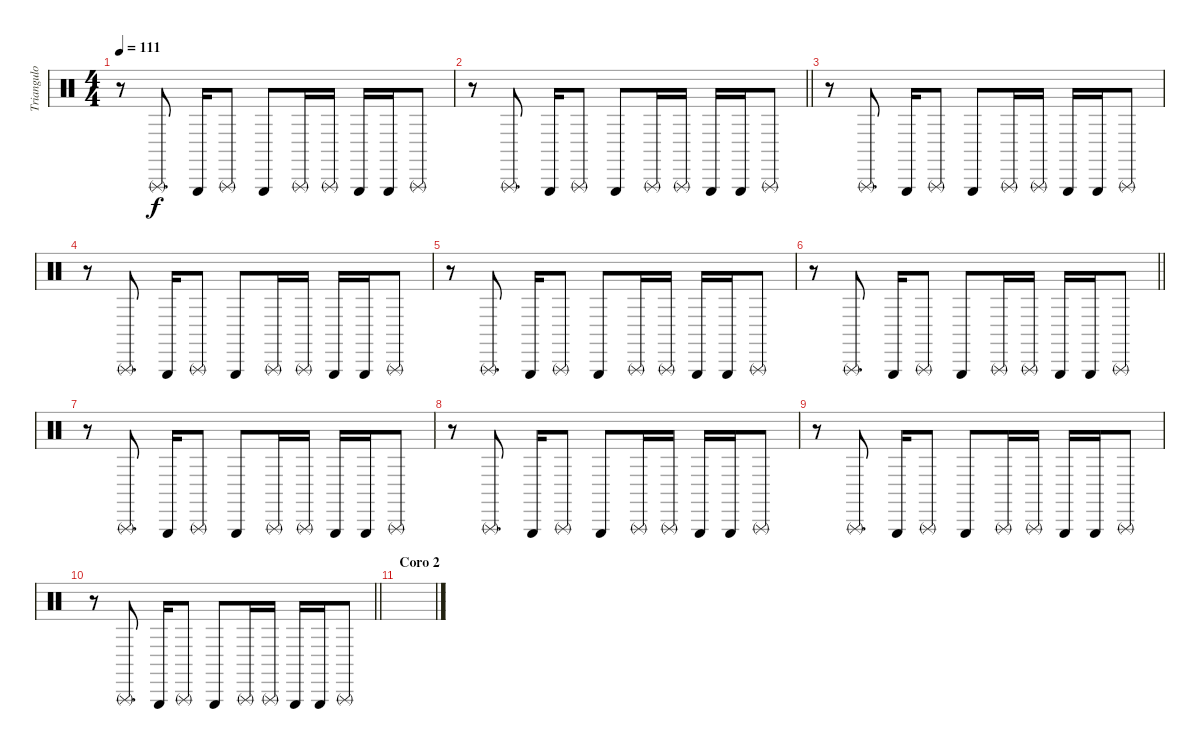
\track ("Triangulo" "Triangulo") {instrument percussion}
\staff {score}
\articulation defaults
\ts (4 4)
\tempo 111
\clef neutral
\ks c
r.8{dy f} "Triangle (rnute)".8{d} "Triangle (hit)".16 "Triangle (rnute)".8 "Triangle (hit)".8 "Triangle (rnute)".16 "Triangle (rnute)".16 "Triangle (hit)".16 "Triangle (hit)".16 "Triangle (rnute)".8 |
\barLineRight lightlight
r.8 "Triangle (rnute)".8{d} "Triangle (hit)".16 "Triangle (rnute)".8 "Triangle (hit)".8 "Triangle (rnute)".16 "Triangle (rnute)".16 "Triangle (hit)".16 "Triangle (hit)".16 "Triangle (rnute)".8 |
r.8 "Triangle (rnute)".8{d} "Triangle (hit)".16 "Triangle (rnute)".8 "Triangle (hit)".8 "Triangle (rnute)".16 "Triangle (rnute)".16 "Triangle (hit)".16 "Triangle (hit)".16 "Triangle (rnute)".8 |
r.8 "Triangle (rnute)".8{d} "Triangle (hit)".16 "Triangle (rnute)".8 "Triangle (hit)".8 "Triangle (rnute)".16 "Triangle (rnute)".16 "Triangle (hit)".16 "Triangle (hit)".16 "Triangle (rnute)".8 |
r.8 "Triangle (rnute)".8{d} "Triangle (hit)".16 "Triangle (rnute)".8 "Triangle (hit)".8 "Triangle (rnute)".16 "Triangle (rnute)".16 "Triangle (hit)".16 "Triangle (hit)".16 "Triangle (rnute)".8 |
\barLineRight lightlight
r.8 "Triangle (rnute)".8{d} "Triangle (hit)".16 "Triangle (rnute)".8 "Triangle (hit)".8 "Triangle (rnute)".16 "Triangle (rnute)".16 "Triangle (hit)".16 "Triangle (hit)".16 "Triangle (rnute)".8 |
r.8 "Triangle (rnute)".8{d} "Triangle (hit)".16 "Triangle (rnute)".8 "Triangle (hit)".8 "Triangle (rnute)".16 "Triangle (rnute)".16 "Triangle (hit)".16 "Triangle (hit)".16 "Triangle (rnute)".8 |
r.8 "Triangle (rnute)".8{d} "Triangle (hit)".16 "Triangle (rnute)".8 "Triangle (hit)".8 "Triangle (rnute)".16 "Triangle (rnute)".16 "Triangle (hit)".16 "Triangle (hit)".16 "Triangle (rnute)".8 |
r.8 "Triangle (rnute)".8{d} "Triangle (hit)".16 "Triangle (rnute)".8 "Triangle (hit)".8 "Triangle (rnute)".16 "Triangle (rnute)".16 "Triangle (hit)".16 "Triangle (hit)".16 "Triangle (rnute)".8 |
\barLineRight lightlight
r.8 "Triangle (rnute)".8{d} "Triangle (hit)".16 "Triangle (rnute)".8 "Triangle (hit)".8 "Triangle (rnute)".16 "Triangle (rnute)".16 "Triangle (hit)".16 "Triangle (hit)".16 "Triangle (rnute)".8 |
\section ("" "Coro 2")
